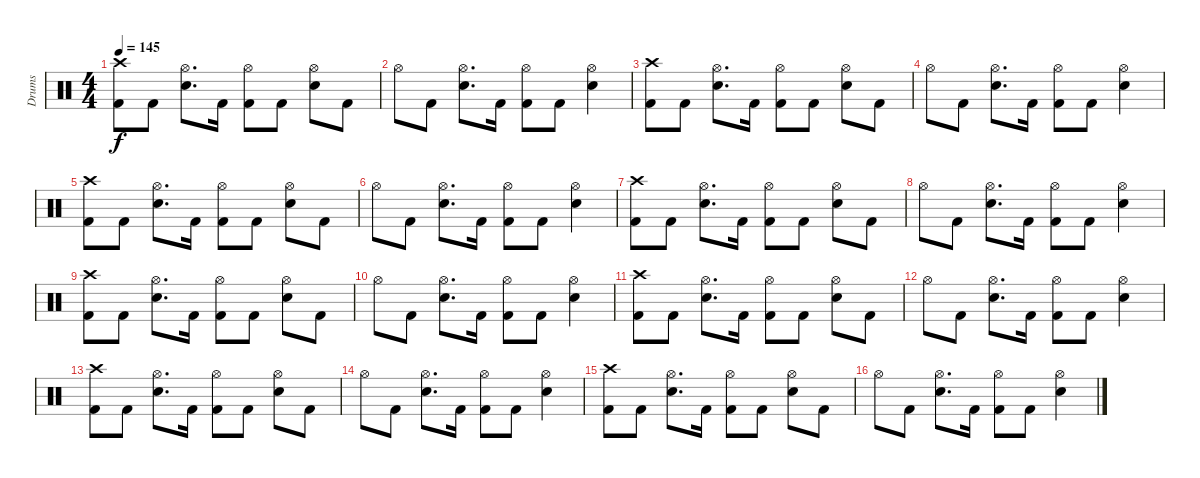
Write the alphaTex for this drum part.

\track ("Drums" "Drums") {instrument percussion}
\staff {score}
\articulation defaults
\ts (4 4)
\tempo 145
\clef neutral
\ks c
("Crash high (hit)" "Kick (hit) 2").8{dy f} "Kick (hit) 2".8 ("Hi-Hat (open)" "Electric Snare (hit)").8{d} "Kick (hit) 2".16 ("Hi-Hat (open)" "Kick (hit) 2").8 "Kick (hit) 2".8 ("Hi-Hat (open)" "Electric Snare (hit)").8 "Kick (hit) 2".8 |
"Hi-Hat (open)".8 "Kick (hit) 2".8 ("Hi-Hat (open)" "Electric Snare (hit)").8{d} "Kick (hit) 2".16 ("Hi-Hat (open)" "Kick (hit) 2").8 "Kick (hit) 2".8 ("Hi-Hat (open)" "Electric Snare (hit)").4 |
("Crash high (hit)" "Kick (hit) 2").8 "Kick (hit) 2".8 ("Hi-Hat (open)" "Electric Snare (hit)").8{d} "Kick (hit) 2".16 ("Hi-Hat (open)" "Kick (hit) 2").8 "Kick (hit) 2".8 ("Hi-Hat (open)" "Electric Snare (hit)").8 "Kick (hit) 2".8 |
"Hi-Hat (open)".8 "Kick (hit) 2".8 ("Hi-Hat (open)" "Electric Snare (hit)").8{d} "Kick (hit) 2".16 ("Hi-Hat (open)" "Kick (hit) 2").8 "Kick (hit) 2".8 ("Hi-Hat (open)" "Electric Snare (hit)").4 |
("Crash high (hit)" "Kick (hit) 2").8 "Kick (hit) 2".8 ("Hi-Hat (open)" "Electric Snare (hit)").8{d} "Kick (hit) 2".16 ("Hi-Hat (open)" "Kick (hit) 2").8 "Kick (hit) 2".8 ("Hi-Hat (open)" "Electric Snare (hit)").8 "Kick (hit) 2".8 |
"Hi-Hat (open)".8 "Kick (hit) 2".8 ("Hi-Hat (open)" "Electric Snare (hit)").8{d} "Kick (hit) 2".16 ("Hi-Hat (open)" "Kick (hit) 2").8 "Kick (hit) 2".8 ("Hi-Hat (open)" "Electric Snare (hit)").4 |
("Crash high (hit)" "Kick (hit) 2").8 "Kick (hit) 2".8 ("Hi-Hat (open)" "Electric Snare (hit)").8{d} "Kick (hit) 2".16 ("Hi-Hat (open)" "Kick (hit) 2").8 "Kick (hit) 2".8 ("Hi-Hat (open)" "Electric Snare (hit)").8 "Kick (hit) 2".8 |
"Hi-Hat (open)".8 "Kick (hit) 2".8 ("Hi-Hat (open)" "Electric Snare (hit)").8{d} "Kick (hit) 2".16 ("Hi-Hat (open)" "Kick (hit) 2").8 "Kick (hit) 2".8 ("Hi-Hat (open)" "Electric Snare (hit)").4 |
("Crash high (hit)" "Kick (hit) 2").8 "Kick (hit) 2".8 ("Hi-Hat (open)" "Electric Snare (hit)").8{d} "Kick (hit) 2".16 ("Hi-Hat (open)" "Kick (hit) 2").8 "Kick (hit) 2".8 ("Hi-Hat (open)" "Electric Snare (hit)").8 "Kick (hit) 2".8 |
"Hi-Hat (open)".8 "Kick (hit) 2".8 ("Hi-Hat (open)" "Electric Snare (hit)").8{d} "Kick (hit) 2".16 ("Hi-Hat (open)" "Kick (hit) 2").8 "Kick (hit) 2".8 ("Hi-Hat (open)" "Electric Snare (hit)").4 |
("Crash high (hit)" "Kick (hit) 2").8 "Kick (hit) 2".8 ("Hi-Hat (open)" "Electric Snare (hit)").8{d} "Kick (hit) 2".16 ("Hi-Hat (open)" "Kick (hit) 2").8 "Kick (hit) 2".8 ("Hi-Hat (open)" "Electric Snare (hit)").8 "Kick (hit) 2".8 |
"Hi-Hat (open)".8 "Kick (hit) 2".8 ("Hi-Hat (open)" "Electric Snare (hit)").8{d} "Kick (hit) 2".16 ("Hi-Hat (open)" "Kick (hit) 2").8 "Kick (hit) 2".8 ("Hi-Hat (open)" "Electric Snare (hit)").4 |
("Crash high (hit)" "Kick (hit) 2").8 "Kick (hit) 2".8 ("Hi-Hat (open)" "Electric Snare (hit)").8{d} "Kick (hit) 2".16 ("Hi-Hat (open)" "Kick (hit) 2").8 "Kick (hit) 2".8 ("Hi-Hat (open)" "Electric Snare (hit)").8 "Kick (hit) 2".8 |
"Hi-Hat (open)".8 "Kick (hit) 2".8 ("Hi-Hat (open)" "Electric Snare (hit)").8{d} "Kick (hit) 2".16 ("Hi-Hat (open)" "Kick (hit) 2").8 "Kick (hit) 2".8 ("Hi-Hat (open)" "Electric Snare (hit)").4 |
("Crash high (hit)" "Kick (hit) 2").8 "Kick (hit) 2".8 ("Hi-Hat (open)" "Electric Snare (hit)").8{d} "Kick (hit) 2".16 ("Hi-Hat (open)" "Kick (hit) 2").8 "Kick (hit) 2".8 ("Hi-Hat (open)" "Electric Snare (hit)").8 "Kick (hit) 2".8 |
"Hi-Hat (open)".8 "Kick (hit) 2".8 ("Hi-Hat (open)" "Electric Snare (hit)").8{d} "Kick (hit) 2".16 ("Hi-Hat (open)" "Kick (hit) 2").8 "Kick (hit) 2".8 ("Hi-Hat (open)" "Electric Snare (hit)").4
